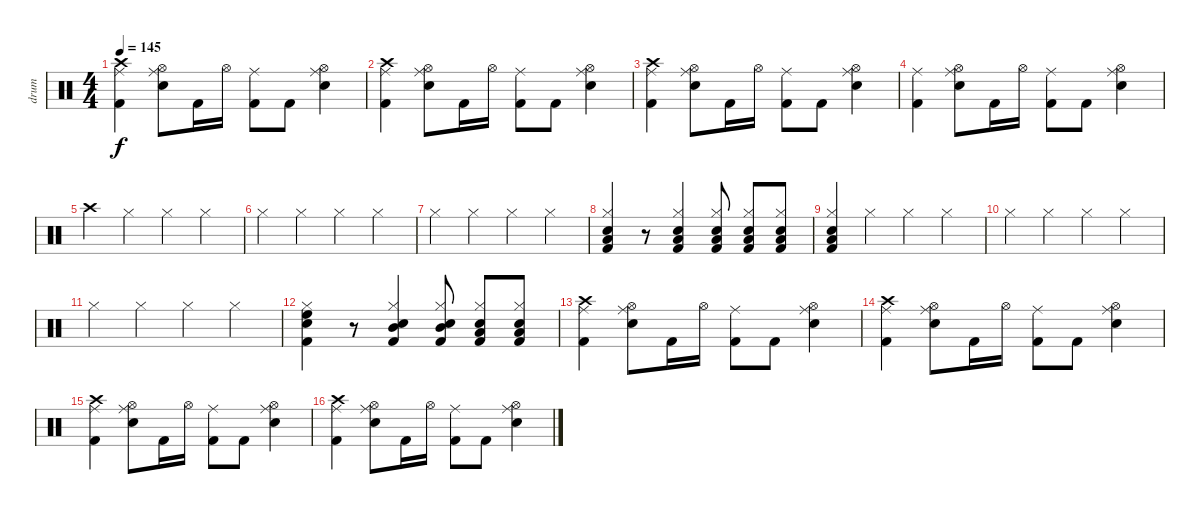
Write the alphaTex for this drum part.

\track ("drum" "drum") {instrument percussion}
\staff {score}
\articulation defaults
\ts (4 4)
\tempo 145
\clef neutral
\ks c
("Crash high (hit)" "Ride (middle)" "Kick (hit) 2").4{dy f} ("Snare (hit) 2" "Ride (middle)" "Hi-Hat (open)").8 "Kick (hit) 2".16 "Hi-Hat (open)".16 ("Ride (middle)" "Kick (hit) 2").8 "Kick (hit) 2".8 ("Snare (hit) 2" "Ride (middle)" "Hi-Hat (open)").4 |
("Crash high (hit)" "Ride (middle)" "Kick (hit) 2").4 ("Snare (hit) 2" "Ride (middle)" "Hi-Hat (open)").8 "Kick (hit) 2".16 "Hi-Hat (open)".16 ("Ride (middle)" "Kick (hit) 2").8 "Kick (hit) 2".8 ("Snare (hit) 2" "Ride (middle)" "Hi-Hat (open)").4 |
("Crash high (hit)" "Ride (middle)" "Kick (hit) 2").4 ("Snare (hit) 2" "Ride (middle)" "Hi-Hat (open)").8 "Kick (hit) 2".16 "Hi-Hat (open)".16 ("Ride (middle)" "Kick (hit) 2").8 "Kick (hit) 2".8 ("Snare (hit) 2" "Ride (middle)" "Hi-Hat (open)").4 |
("Ride (middle)" "Kick (hit) 2").4 ("Snare (hit) 2" "Ride (middle)" "Hi-Hat (open)").8 "Kick (hit) 2".16 "Hi-Hat (open)".16 ("Ride (middle)" "Kick (hit) 2").8 "Kick (hit) 2".8 ("Snare (hit) 2" "Ride (middle)" "Hi-Hat (open)").4 |
"Crash high (hit)".4 "Hi-Hat (closed)".4 "Hi-Hat (closed)".4 "Hi-Hat (closed)".4 |
"Hi-Hat (closed)".4 "Hi-Hat (closed)".4 "Hi-Hat (closed)".4 "Hi-Hat (closed)".4 |
"Hi-Hat (closed)".4 "Hi-Hat (closed)".4 "Hi-Hat (closed)".4 "Hi-Hat (closed)".4 |
("Snare (hit) 2" "Low Tom (hit)" "Hi-Hat (closed)" "Kick (hit) 2").4 r.8 ("Snare (hit) 2" "Low Tom (hit)" "Hi-Hat (closed)" "Kick (hit) 2").4 ("Snare (hit) 2" "Low Tom (hit)" "Hi-Hat (closed)" "Kick (hit) 2").8 ("Snare (hit) 2" "Low Tom (hit)" "Hi-Hat (closed)" "Kick (hit) 2").8 ("Snare (hit) 2" "Low Tom (hit)" "Hi-Hat (closed)" "Kick (hit) 2").8 |
("Snare (hit) 2" "Low Tom (hit)" "Hi-Hat (closed)" "Kick (hit) 2").4 "Hi-Hat (closed)".4 "Hi-Hat (closed)".4 "Hi-Hat (closed)".4 |
"Hi-Hat (closed)".4 "Hi-Hat (closed)".4 "Hi-Hat (closed)".4 "Hi-Hat (closed)".4 |
"Hi-Hat (closed)".4 "Hi-Hat (closed)".4 "Hi-Hat (closed)".4 "Hi-Hat (closed)".4 |
("Snare (hit) 2" "High Floor Tom (hit)" "Hi-Hat (closed)" "Kick (hit) 2").4 r.8 ("Snare (hit) 2" "Mid Tom (hit)" "Hi-Hat (closed)" "Kick (hit) 2").4 ("Snare (hit) 2" "Mid Tom (hit)" "Hi-Hat (closed)" "Kick (hit) 2").8 ("Snare (hit) 2" "Low Tom (hit)" "Hi-Hat (closed)" "Kick (hit) 2").8 ("Snare (hit) 2" "Low Tom (hit)" "Hi-Hat (closed)" "Kick (hit) 2").8 |
("Crash high (hit)" "Ride (middle)" "Kick (hit) 2").4 ("Snare (hit) 2" "Ride (middle)" "Hi-Hat (open)").8 "Kick (hit) 2".16 "Hi-Hat (open)".16 ("Ride (middle)" "Kick (hit) 2").8 "Kick (hit) 2".8 ("Snare (hit) 2" "Ride (middle)" "Hi-Hat (open)").4 |
("Crash high (hit)" "Ride (middle)" "Kick (hit) 2").4 ("Snare (hit) 2" "Ride (middle)" "Hi-Hat (open)").8 "Kick (hit) 2".16 "Hi-Hat (open)".16 ("Ride (middle)" "Kick (hit) 2").8 "Kick (hit) 2".8 ("Snare (hit) 2" "Ride (middle)" "Hi-Hat (open)").4 |
("Crash high (hit)" "Ride (middle)" "Kick (hit) 2").4 ("Snare (hit) 2" "Ride (middle)" "Hi-Hat (open)").8 "Kick (hit) 2".16 "Hi-Hat (open)".16 ("Ride (middle)" "Kick (hit) 2").8 "Kick (hit) 2".8 ("Snare (hit) 2" "Ride (middle)" "Hi-Hat (open)").4 |
("Crash high (hit)" "Ride (middle)" "Kick (hit) 2").4 ("Snare (hit) 2" "Ride (middle)" "Hi-Hat (open)").8 "Kick (hit) 2".16 "Hi-Hat (open)".16 ("Ride (middle)" "Kick (hit) 2").8 "Kick (hit) 2".8 ("Snare (hit) 2" "Ride (middle)" "Hi-Hat (open)").4
